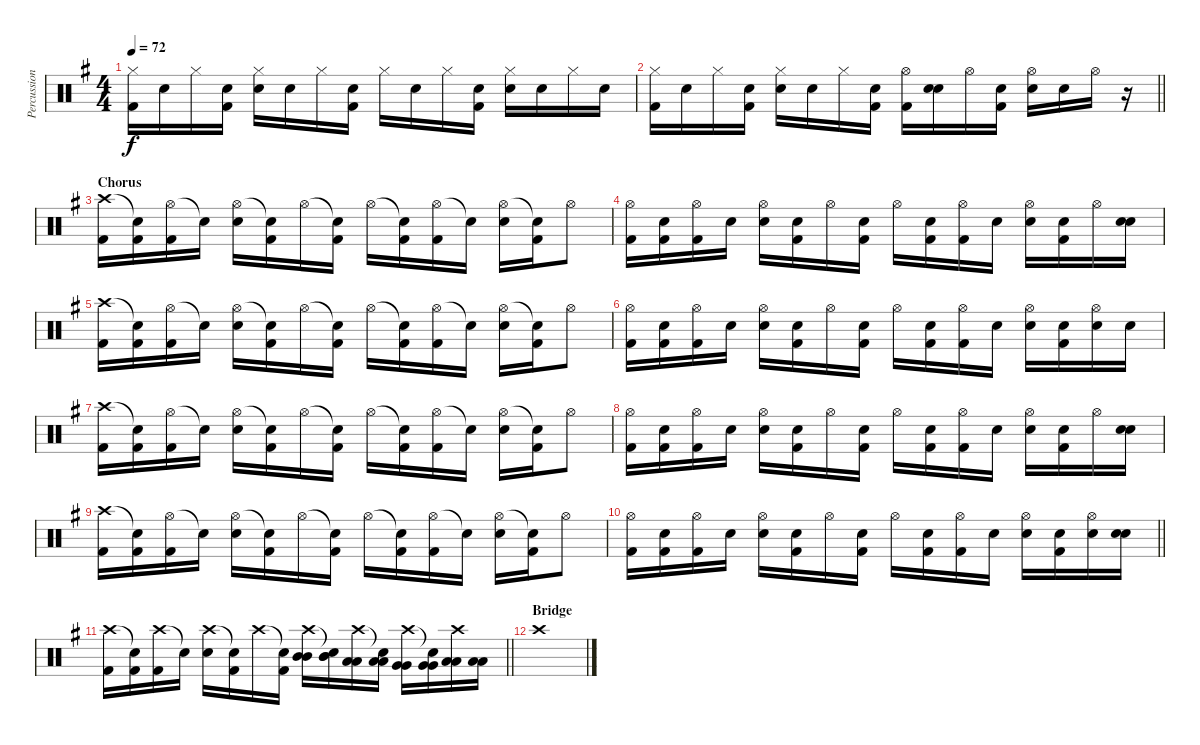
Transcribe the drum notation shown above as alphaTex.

\track ("Percussion" "Percussion") {instrument percussion}
\staff {score}
\articulation defaults
\ts (4 4)
\tempo 72
\clef neutral
\ks g
("Hi-Hat (closed)" "Kick (hit) 2").16{dy f} "Snare (hit)".16 "Hi-Hat (closed)".16 ("Snare (hit)" "Kick (hit) 2").16 ("Hi-Hat (closed)" "Snare (hit) 2").16 "Snare (hit)".16 "Hi-Hat (closed)".16 ("Snare (hit)" "Kick (hit) 2").16 "Hi-Hat (closed)".16 "Snare (hit)".16 "Hi-Hat (closed)".16 ("Snare (hit)" "Kick (hit) 2").16 ("Hi-Hat (closed)" "Snare (hit) 2").16 "Snare (hit)".16 "Hi-Hat (closed)".16 "Snare (hit)".16 |
\barLineRight lightlight
("Hi-Hat (closed)" "Kick (hit) 2").16 "Snare (hit)".16 "Hi-Hat (closed)".16 ("Snare (hit)" "Kick (hit) 2").16 ("Hi-Hat (closed)" "Snare (hit) 2").16 "Snare (hit)".16 "Hi-Hat (closed)".16 ("Snare (hit)" "Kick (hit) 2").16 ("Hi-Hat (open)" "Kick (hit) 2").16 ("Snare (hit)" "Snare (hit) 2").16 "Hi-Hat (open)".16 ("Snare (hit)" "Kick (hit) 2").16 ("Hi-Hat (open)" "Snare (hit) 2").16 "Snare (hit)".16 "Hi-Hat (open)".16 r.16 |
\section ("" "Chorus")
("Crash high (hit)" "Kick (hit) 2").16 ("Snare (hit)"{t} "Kick (hit) 2").16 ("Hi-Hat (open)" "Kick (hit) 2").16 "Snare (hit)"{t}.16 ("Hi-Hat (open)" "Electric Snare (hit)").16 ("Snare (hit)"{t} "Kick (hit) 2").16 "Hi-Hat (open)".16 ("Snare (hit)"{t} "Kick (hit) 2").16 "Hi-Hat (open)".16 ("Snare (hit)"{t} "Kick (hit) 2").16 ("Hi-Hat (open)" "Kick (hit) 2").16 "Snare (hit)"{t}.16 ("Hi-Hat (open)" "Electric Snare (hit)").16 ("Snare (hit)"{t} "Kick (hit) 2").16 "Hi-Hat (open)".8 |
("Hi-Hat (open)" "Kick (hit) 2").16 ("Snare (hit)" "Kick (hit) 2").16 ("Hi-Hat (open)" "Kick (hit) 2").16 "Snare (hit)".16 ("Hi-Hat (open)" "Electric Snare (hit)").16 ("Snare (hit)" "Kick (hit) 2").16 "Hi-Hat (open)".16 ("Snare (hit)" "Kick (hit) 2").16 "Hi-Hat (open)".16 ("Snare (hit)" "Kick (hit) 2").16 ("Hi-Hat (open)" "Kick (hit) 2").16 "Snare (hit)".16 ("Hi-Hat (open)" "Electric Snare (hit)").16 ("Snare (hit)" "Kick (hit) 2").16 "Hi-Hat (open)".16 ("Snare (hit)" "Electric Snare (hit)").16 |
("Crash high (hit)" "Kick (hit) 2").16 ("Snare (hit)"{t} "Kick (hit) 2").16 ("Hi-Hat (open)" "Kick (hit) 2").16 "Snare (hit)"{t}.16 ("Hi-Hat (open)" "Electric Snare (hit)").16 ("Snare (hit)"{t} "Kick (hit) 2").16 "Hi-Hat (open)".16 ("Snare (hit)"{t} "Kick (hit) 2").16 "Hi-Hat (open)".16 ("Snare (hit)"{t} "Kick (hit) 2").16 ("Hi-Hat (open)" "Kick (hit) 2").16 "Snare (hit)"{t}.16 ("Hi-Hat (open)" "Electric Snare (hit)").16 ("Snare (hit)"{t} "Kick (hit) 2").16 "Hi-Hat (open)".8 |
("Hi-Hat (open)" "Kick (hit) 2").16 ("Snare (hit)" "Kick (hit) 2").16 ("Hi-Hat (open)" "Kick (hit) 2").16 "Snare (hit)".16 ("Hi-Hat (open)" "Electric Snare (hit)").16 ("Snare (hit)" "Kick (hit) 2").16 "Hi-Hat (open)".16 ("Snare (hit)" "Kick (hit) 2").16 "Hi-Hat (open)".16 ("Snare (hit)" "Kick (hit) 2").16 ("Hi-Hat (open)" "Kick (hit) 2").16 "Snare (hit)".16 ("Hi-Hat (open)" "Electric Snare (hit)").16 ("Snare (hit)" "Kick (hit) 2").16 ("Hi-Hat (open)" "Electric Snare (hit)").16 "Snare (hit)".16 |
("Crash high (hit)" "Kick (hit) 2").16 ("Snare (hit)"{t} "Kick (hit) 2").16 ("Hi-Hat (open)" "Kick (hit) 2").16 "Snare (hit)"{t}.16 ("Hi-Hat (open)" "Electric Snare (hit)").16 ("Snare (hit)"{t} "Kick (hit) 2").16 "Hi-Hat (open)".16 ("Snare (hit)"{t} "Kick (hit) 2").16 "Hi-Hat (open)".16 ("Snare (hit)"{t} "Kick (hit) 2").16 ("Hi-Hat (open)" "Kick (hit) 2").16 "Snare (hit)"{t}.16 ("Hi-Hat (open)" "Electric Snare (hit)").16 ("Snare (hit)"{t} "Kick (hit) 2").16 "Hi-Hat (open)".8 |
("Hi-Hat (open)" "Kick (hit) 2").16 ("Snare (hit)" "Kick (hit) 2").16 ("Hi-Hat (open)" "Kick (hit) 2").16 "Snare (hit)".16 ("Hi-Hat (open)" "Electric Snare (hit)").16 ("Snare (hit)" "Kick (hit) 2").16 "Hi-Hat (open)".16 ("Snare (hit)" "Kick (hit) 2").16 "Hi-Hat (open)".16 ("Snare (hit)" "Kick (hit) 2").16 ("Hi-Hat (open)" "Kick (hit) 2").16 "Snare (hit)".16 ("Hi-Hat (open)" "Electric Snare (hit)").16 ("Snare (hit)" "Kick (hit) 2").16 "Hi-Hat (open)".16 ("Snare (hit)" "Electric Snare (hit)").16 |
("Crash high (hit)" "Kick (hit) 2").16 ("Snare (hit)"{t} "Kick (hit) 2").16 ("Hi-Hat (open)" "Kick (hit) 2").16 "Snare (hit)"{t}.16 ("Hi-Hat (open)" "Electric Snare (hit)").16 ("Snare (hit)"{t} "Kick (hit) 2").16 "Hi-Hat (open)".16 ("Snare (hit)"{t} "Kick (hit) 2").16 "Hi-Hat (open)".16 ("Snare (hit)"{t} "Kick (hit) 2").16 ("Hi-Hat (open)" "Kick (hit) 2").16 "Snare (hit)"{t}.16 ("Hi-Hat (open)" "Electric Snare (hit)").16 ("Snare (hit)"{t} "Kick (hit) 2").16 "Hi-Hat (open)".8 |
\barLineRight lightlight
("Hi-Hat (open)" "Kick (hit) 2").16 ("Snare (hit)" "Kick (hit) 2").16 ("Hi-Hat (open)" "Kick (hit) 2").16 "Snare (hit)".16 ("Hi-Hat (open)" "Electric Snare (hit)").16 ("Snare (hit)" "Kick (hit) 2").16 "Hi-Hat (open)".16 ("Snare (hit)" "Kick (hit) 2").16 "Hi-Hat (open)".16 ("Snare (hit)" "Kick (hit) 2").16 ("Hi-Hat (open)" "Kick (hit) 2").16 "Snare (hit)".16 ("Hi-Hat (open)" "Electric Snare (hit)").16 ("Snare (hit)" "Kick (hit) 2").16 ("Hi-Hat (open)" "Electric Snare (hit)").16 ("Snare (hit)" "Electric Snare (hit)").16 |
\barLineRight lightlight
("Crash high (hit)" "Kick (hit) 2").16 ("Snare (hit)"{t} "Kick (hit) 2").16 ("Crash high (hit)" "Kick (hit) 2").16 "Snare (hit)"{t}.16 ("Crash high (hit)" "Electric Snare (hit)").16 ("Snare (hit)"{t} "Kick (hit) 2").16 "Crash high (hit)".16 ("Snare (hit)"{t} "Kick (hit) 2").16 ("Crash high (hit)" "Mid Tom (hit)" "Mid Tom (hit)").16 ("Snare (hit)"{t} "Mid Tom (hit)" "Mid Tom (hit)").16 ("Crash high (hit)" "Low Tom (hit)" "Low Tom (hit)").16 ("Snare (hit)"{t} "Low Tom (hit)" "Low Tom (hit)").16 ("Crash high (hit)" "Very Low Tom (hit)" "Very Low Tom (hit)").16 ("Snare (hit)"{t} "Very Low Tom (hit)" "Very Low Tom (hit)").16 ("Crash high (hit)" "Low Floor Tom (hit)" "Low Floor Tom (hit)").16 ("Low Floor Tom (hit)" "Low Floor Tom (hit)").16 |
\section ("" "Bridge")
"Crash high (hit)".1
